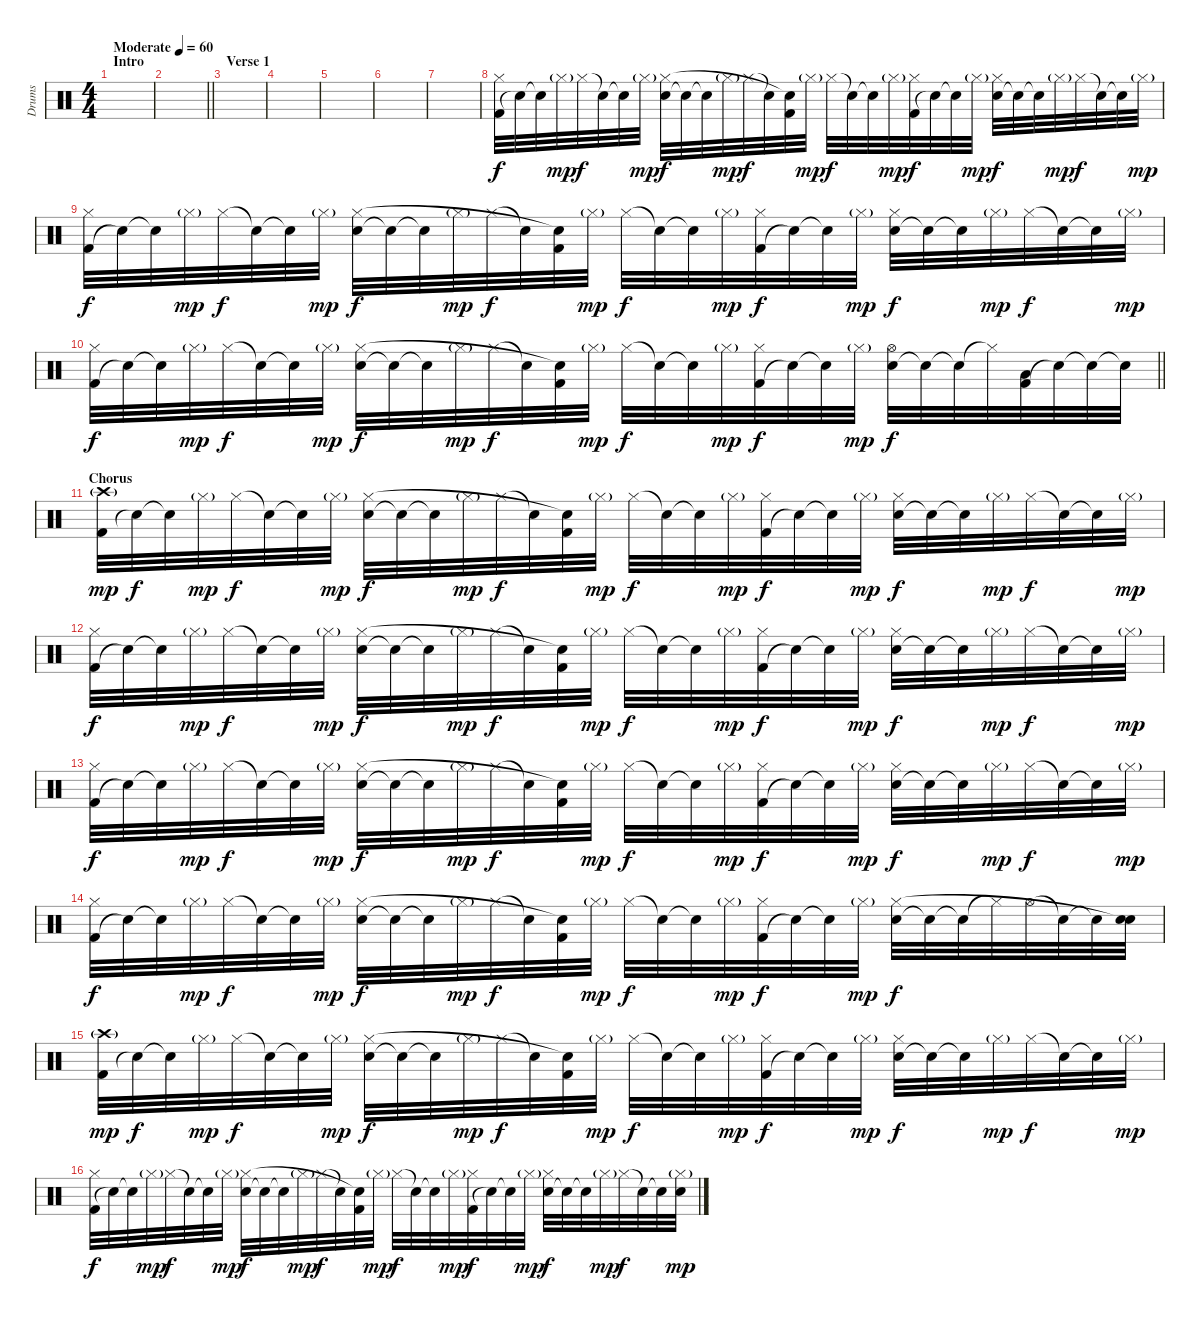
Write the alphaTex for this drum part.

\track ("Drums" "Drums") {instrument percussion}
\staff {score}
\articulation defaults
\ts (4 4)
\section ("" "Intro")
\tempo (60 "Moderate")
\clef neutral
\ks c
|
\barLineRight lightlight
|
\section ("" "Verse 1")
|
|
|
|
|
("Kick (hit) 2" "Hi-Hat (closed)").32 "Snare (hit)"{t}.32 "Snare (hit)"{t}.32 "Hi-Hat (closed)"{g}.32{dy mp} "Hi-Hat (closed)".32{dy f} "Snare (hit)"{t}.32 "Snare (hit)"{t}.32 "Hi-Hat (closed)"{g}.32{dy mp} ("Electric Snare (hit)" "Hi-Hat (closed)").32{dy f} "Snare (hit)"{t}.32 "Snare (hit)"{t}.32 "Hi-Hat (closed)"{g}.32{dy mp} "Hi-Hat (closed)".32{dy f} "Snare (hit)"{t}.32 ("Kick (hit) 2" "Snare (hit)"{t}).32 "Hi-Hat (closed)"{g}.32{dy mp} "Hi-Hat (closed)".32{dy f} "Snare (hit)"{t}.32 "Snare (hit)"{t}.32 "Hi-Hat (closed)"{g}.32{dy mp} ("Kick (hit) 2" "Hi-Hat (closed)").32{dy f} "Snare (hit)"{t}.32 "Snare (hit)"{t}.32 "Hi-Hat (closed)"{g}.32{dy mp} ("Electric Snare (hit)" "Hi-Hat (closed)").32{dy f} "Snare (hit)"{t}.32 "Snare (hit)"{t}.32 "Hi-Hat (closed)"{g}.32{dy mp} "Hi-Hat (closed)".32{dy f} "Snare (hit)"{t}.32 "Snare (hit)"{t}.32 "Hi-Hat (closed)"{g}.32{dy mp} |
("Kick (hit) 2" "Hi-Hat (closed)").32{dy f} "Snare (hit)"{t}.32 "Snare (hit)"{t}.32 "Hi-Hat (closed)"{g}.32{dy mp} "Hi-Hat (closed)".32{dy f} "Snare (hit)"{t}.32 "Snare (hit)"{t}.32 "Hi-Hat (closed)"{g}.32{dy mp} ("Electric Snare (hit)" "Hi-Hat (closed)").32{dy f} "Snare (hit)"{t}.32 "Snare (hit)"{t}.32 "Hi-Hat (closed)"{g}.32{dy mp} "Hi-Hat (closed)".32{dy f} "Snare (hit)"{t}.32 ("Kick (hit) 2" "Snare (hit)"{t}).32 "Hi-Hat (closed)"{g}.32{dy mp} "Hi-Hat (closed)".32{dy f} "Snare (hit)"{t}.32 "Snare (hit)"{t}.32 "Hi-Hat (closed)"{g}.32{dy mp} ("Kick (hit) 2" "Hi-Hat (closed)").32{dy f} "Snare (hit)"{t}.32 "Snare (hit)"{t}.32 "Hi-Hat (closed)"{g}.32{dy mp} ("Electric Snare (hit)" "Hi-Hat (closed)").32{dy f} "Snare (hit)"{t}.32 "Snare (hit)"{t}.32 "Hi-Hat (closed)"{g}.32{dy mp} "Hi-Hat (closed)".32{dy f} "Snare (hit)"{t}.32 "Snare (hit)"{t}.32 "Hi-Hat (closed)"{g}.32{dy mp} |
\barLineRight lightlight
("Kick (hit) 2" "Hi-Hat (closed)").32{dy f} "Snare (hit)"{t}.32 "Snare (hit)"{t}.32 "Hi-Hat (closed)"{g}.32{dy mp} "Hi-Hat (closed)".32{dy f} "Snare (hit)"{t}.32 "Snare (hit)"{t}.32 "Hi-Hat (closed)"{g}.32{dy mp} ("Electric Snare (hit)" "Hi-Hat (closed)").32{dy f} "Snare (hit)"{t}.32 "Snare (hit)"{t}.32 "Hi-Hat (closed)"{g}.32{dy mp} "Hi-Hat (closed)".32{dy f} "Snare (hit)"{t}.32 ("Kick (hit) 2" "Snare (hit)"{t}).32 "Hi-Hat (closed)"{g}.32{dy mp} "Hi-Hat (closed)".32{dy f} "Snare (hit)"{t}.32 "Snare (hit)"{t}.32 "Hi-Hat (closed)"{g}.32{dy mp} ("Kick (hit) 2" "Hi-Hat (closed)").32{dy f} "Snare (hit)"{t}.32 "Snare (hit)"{t}.32 "Hi-Hat (closed)"{g}.32{dy mp} ("Electric Snare (hit)" "Hi-Hat (open)").32{dy f} "Snare (hit)"{t}.32 "Snare (hit)"{t}.32 "Hi-Hat (closed)"{t}.32 ("Kick (hit) 2" "Low Floor Tom (hit)").32 "Snare (hit)"{t}.32 "Snare (hit)"{t}.32 "Snare (hit)"{t}.32 |
\section ("" "Chorus")
("Kick (hit) 2" "Crash high (hit)"{g}).32{dy mp} "Snare (hit)"{t}.32{dy f} "Snare (hit)"{t}.32 "Hi-Hat (closed)"{g}.32{dy mp} "Hi-Hat (closed)".32{dy f} "Snare (hit)"{t}.32 "Snare (hit)"{t}.32 "Hi-Hat (closed)"{g}.32{dy mp} ("Electric Snare (hit)" "Hi-Hat (closed)").32{dy f} "Snare (hit)"{t}.32 "Snare (hit)"{t}.32 "Hi-Hat (closed)"{g}.32{dy mp} "Hi-Hat (closed)".32{dy f} "Snare (hit)"{t}.32 ("Kick (hit) 2" "Snare (hit)"{t}).32 "Hi-Hat (closed)"{g}.32{dy mp} "Hi-Hat (closed)".32{dy f} "Snare (hit)"{t}.32 "Snare (hit)"{t}.32 "Hi-Hat (closed)"{g}.32{dy mp} ("Kick (hit) 2" "Hi-Hat (closed)").32{dy f} "Snare (hit)"{t}.32 "Snare (hit)"{t}.32 "Hi-Hat (closed)"{g}.32{dy mp} ("Electric Snare (hit)" "Hi-Hat (closed)").32{dy f} "Snare (hit)"{t}.32 "Snare (hit)"{t}.32 "Hi-Hat (closed)"{g}.32{dy mp} "Hi-Hat (closed)".32{dy f} "Snare (hit)"{t}.32 "Snare (hit)"{t}.32 "Hi-Hat (closed)"{g}.32{dy mp} |
("Kick (hit) 2" "Hi-Hat (closed)").32{dy f} "Snare (hit)"{t}.32 "Snare (hit)"{t}.32 "Hi-Hat (closed)"{g}.32{dy mp} "Hi-Hat (closed)".32{dy f} "Snare (hit)"{t}.32 "Snare (hit)"{t}.32 "Hi-Hat (closed)"{g}.32{dy mp} ("Electric Snare (hit)" "Hi-Hat (closed)").32{dy f} "Snare (hit)"{t}.32 "Snare (hit)"{t}.32 "Hi-Hat (closed)"{g}.32{dy mp} "Hi-Hat (closed)".32{dy f} "Snare (hit)"{t}.32 ("Kick (hit) 2" "Snare (hit)"{t}).32 "Hi-Hat (closed)"{g}.32{dy mp} "Hi-Hat (closed)".32{dy f} "Snare (hit)"{t}.32 "Snare (hit)"{t}.32 "Hi-Hat (closed)"{g}.32{dy mp} ("Kick (hit) 2" "Hi-Hat (closed)").32{dy f} "Snare (hit)"{t}.32 "Snare (hit)"{t}.32 "Hi-Hat (closed)"{g}.32{dy mp} ("Electric Snare (hit)" "Hi-Hat (closed)").32{dy f} "Snare (hit)"{t}.32 "Snare (hit)"{t}.32 "Hi-Hat (closed)"{g}.32{dy mp} "Hi-Hat (closed)".32{dy f} "Snare (hit)"{t}.32 "Snare (hit)"{t}.32 "Hi-Hat (closed)"{g}.32{dy mp} |
("Kick (hit) 2" "Hi-Hat (closed)").32{dy f} "Snare (hit)"{t}.32 "Snare (hit)"{t}.32 "Hi-Hat (closed)"{g}.32{dy mp} "Hi-Hat (closed)".32{dy f} "Snare (hit)"{t}.32 "Snare (hit)"{t}.32 "Hi-Hat (closed)"{g}.32{dy mp} ("Electric Snare (hit)" "Hi-Hat (closed)").32{dy f} "Snare (hit)"{t}.32 "Snare (hit)"{t}.32 "Hi-Hat (closed)"{g}.32{dy mp} "Hi-Hat (closed)".32{dy f} "Snare (hit)"{t}.32 ("Kick (hit) 2" "Snare (hit)"{t}).32 "Hi-Hat (closed)"{g}.32{dy mp} "Hi-Hat (closed)".32{dy f} "Snare (hit)"{t}.32 "Snare (hit)"{t}.32 "Hi-Hat (closed)"{g}.32{dy mp} ("Kick (hit) 2" "Hi-Hat (closed)").32{dy f} "Snare (hit)"{t}.32 "Snare (hit)"{t}.32 "Hi-Hat (closed)"{g}.32{dy mp} ("Electric Snare (hit)" "Hi-Hat (closed)").32{dy f} "Snare (hit)"{t}.32 "Snare (hit)"{t}.32 "Hi-Hat (closed)"{g}.32{dy mp} "Hi-Hat (closed)".32{dy f} "Snare (hit)"{t}.32 "Snare (hit)"{t}.32 "Hi-Hat (closed)"{g}.32{dy mp} |
("Kick (hit) 2" "Hi-Hat (closed)").32{dy f} "Snare (hit)"{t}.32 "Snare (hit)"{t}.32 "Hi-Hat (closed)"{g}.32{dy mp} "Hi-Hat (closed)".32{dy f} "Snare (hit)"{t}.32 "Snare (hit)"{t}.32 "Hi-Hat (closed)"{g}.32{dy mp} ("Electric Snare (hit)" "Hi-Hat (closed)").32{dy f} "Snare (hit)"{t}.32 "Snare (hit)"{t}.32 "Hi-Hat (closed)"{g}.32{dy mp} "Hi-Hat (closed)".32{dy f} "Snare (hit)"{t}.32 ("Kick (hit) 2" "Snare (hit)"{t}).32 "Hi-Hat (closed)"{g}.32{dy mp} "Hi-Hat (closed)".32{dy f} "Snare (hit)"{t}.32 "Snare (hit)"{t}.32 "Hi-Hat (closed)"{g}.32{dy mp} ("Kick (hit) 2" "Hi-Hat (closed)").32{dy f} "Snare (hit)"{t}.32 "Snare (hit)"{t}.32 "Hi-Hat (closed)"{g}.32{dy mp} ("Electric Snare (hit)" "Hi-Hat (closed)").32{dy f} "Snare (hit)"{t}.32 "Snare (hit)"{t}.32 "Hi-Hat (closed)"{t}.32 "Hi-Hat (open)".32 "Snare (hit)"{t}.32 "Snare (hit)"{t}.32 ("Electric Snare (hit)" "Snare (hit)"{t}).32 |
("Kick (hit) 2" "Crash high (hit)"{g}).32{dy mp} "Snare (hit)"{t}.32{dy f} "Snare (hit)"{t}.32 "Hi-Hat (closed)"{g}.32{dy mp} "Hi-Hat (closed)".32{dy f} "Snare (hit)"{t}.32 "Snare (hit)"{t}.32 "Hi-Hat (closed)"{g}.32{dy mp} ("Electric Snare (hit)" "Hi-Hat (closed)").32{dy f} "Snare (hit)"{t}.32 "Snare (hit)"{t}.32 "Hi-Hat (closed)"{g}.32{dy mp} "Hi-Hat (closed)".32{dy f} "Snare (hit)"{t}.32 ("Kick (hit) 2" "Snare (hit)"{t}).32 "Hi-Hat (closed)"{g}.32{dy mp} "Hi-Hat (closed)".32{dy f} "Snare (hit)"{t}.32 "Snare (hit)"{t}.32 "Hi-Hat (closed)"{g}.32{dy mp} ("Kick (hit) 2" "Hi-Hat (closed)").32{dy f} "Snare (hit)"{t}.32 "Snare (hit)"{t}.32 "Hi-Hat (closed)"{g}.32{dy mp} ("Electric Snare (hit)" "Hi-Hat (closed)").32{dy f} "Snare (hit)"{t}.32 "Snare (hit)"{t}.32 "Hi-Hat (closed)"{g}.32{dy mp} "Hi-Hat (closed)".32{dy f} "Snare (hit)"{t}.32 "Snare (hit)"{t}.32 "Hi-Hat (closed)"{g}.32{dy mp} |
("Kick (hit) 2" "Hi-Hat (closed)").32{dy f} "Snare (hit)"{t}.32 "Snare (hit)"{t}.32 "Hi-Hat (closed)"{g}.32{dy mp} "Hi-Hat (closed)".32{dy f} "Snare (hit)"{t}.32 "Snare (hit)"{t}.32 "Hi-Hat (closed)"{g}.32{dy mp} ("Electric Snare (hit)" "Hi-Hat (closed)").32{dy f} "Snare (hit)"{t}.32 "Snare (hit)"{t}.32 "Hi-Hat (closed)"{g}.32{dy mp} "Hi-Hat (closed)".32{dy f} "Snare (hit)"{t}.32 ("Kick (hit) 2" "Snare (hit)"{t}).32 "Hi-Hat (closed)"{g}.32{dy mp} "Hi-Hat (closed)".32{dy f} "Snare (hit)"{t}.32 "Snare (hit)"{t}.32 "Hi-Hat (closed)"{g}.32{dy mp} ("Kick (hit) 2" "Hi-Hat (closed)").32{dy f} "Snare (hit)"{t}.32 "Snare (hit)"{t}.32 "Hi-Hat (closed)"{g}.32{dy mp} ("Electric Snare (hit)" "Hi-Hat (closed)").32{dy f} "Snare (hit)"{t}.32 "Snare (hit)"{t}.32 "Hi-Hat (closed)"{g}.32{dy mp} "Hi-Hat (closed)".32{dy f} "Snare (hit)"{t}.32 "Snare (hit)"{t}.32 ("Electric Snare (hit)" "Hi-Hat (closed)"{g}).32{dy mp}
